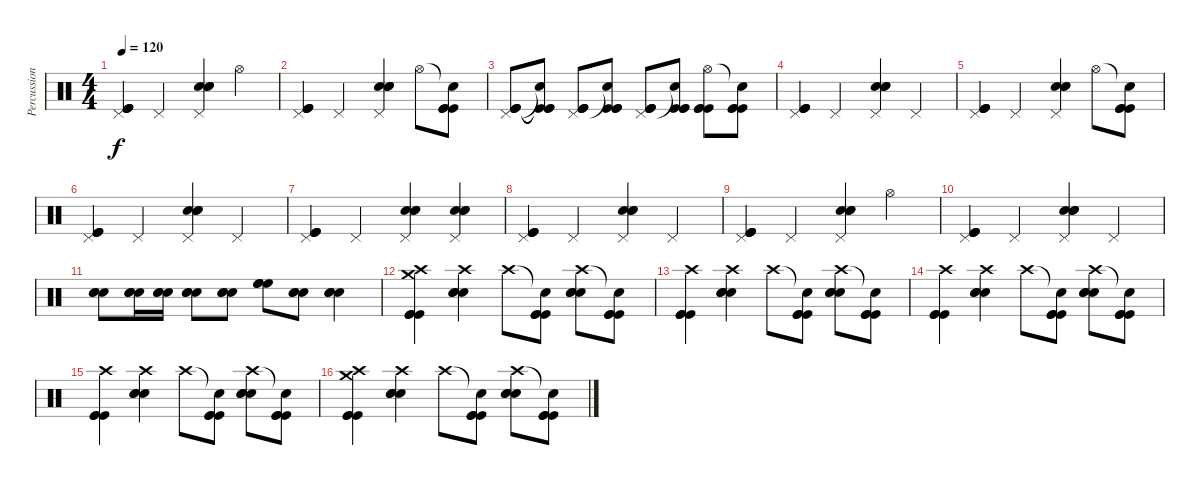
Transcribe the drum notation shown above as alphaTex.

\track ("Percussions" "Percussion") {instrument percussion}
\staff {score}
\articulation defaults
\ts (4 4)
\tempo 120
\clef neutral
\ks c
("Pedal Hi-Hat (hit)" "Kick (hit)" "Kick (hit)" "Kick (hit)").4{dy f} "Pedal Hi-Hat (hit)".4 ("Pedal Hi-Hat (hit)" "Snare (hit) 2" "Snare (hit) 2" "Snare (hit) 2").4 "Hi-Hat (open)".4 |
("Pedal Hi-Hat (hit)" "Kick (hit)" "Kick (hit)" "Kick (hit)").4 "Pedal Hi-Hat (hit)".4 ("Pedal Hi-Hat (hit)" "Snare (hit) 2" "Snare (hit) 2" "Snare (hit) 2").4 "Hi-Hat (open)".8 ("Snare (hit)"{t} "Kick (hit)" "Kick (hit)" "Kick (hit)").8 |
("Pedal Hi-Hat (hit)" "Kick (hit)" "Kick (hit)" "Kick (hit)").8 ("Snare (hit)"{t} "Kick (hit)"{t} "Kick (hit)"{t} "Kick (hit)"{t}).8 ("Pedal Hi-Hat (hit)" "Kick (hit)" "Kick (hit)" "Kick (hit)").8 ("Snare (hit)"{t} "Kick (hit)" "Kick (hit)" "Kick (hit)").8 ("Pedal Hi-Hat (hit)" "Kick (hit)" "Kick (hit)" "Kick (hit)").8 ("Snare (hit)"{t} "Kick (hit)" "Kick (hit)" "Kick (hit)").8 ("Hi-Hat (open)" "Kick (hit)" "Kick (hit)" "Kick (hit)").8 ("Snare (hit)"{t} "Kick (hit)" "Kick (hit)" "Kick (hit)").8 |
("Pedal Hi-Hat (hit)" "Kick (hit)" "Kick (hit)" "Kick (hit)").4 "Pedal Hi-Hat (hit)".4 ("Pedal Hi-Hat (hit)" "Snare (hit) 2" "Snare (hit) 2" "Snare (hit) 2").4 "Pedal Hi-Hat (hit)".4 |
("Pedal Hi-Hat (hit)" "Kick (hit)" "Kick (hit)" "Kick (hit)").4 "Pedal Hi-Hat (hit)".4 ("Pedal Hi-Hat (hit)" "Snare (hit) 2" "Snare (hit) 2" "Snare (hit) 2").4 "Hi-Hat (open)".8 ("Snare (hit)"{t} "Kick (hit)" "Kick (hit)" "Kick (hit)").8 |
("Pedal Hi-Hat (hit)" "Kick (hit)" "Kick (hit)" "Kick (hit)").4 "Pedal Hi-Hat (hit)".4 ("Pedal Hi-Hat (hit)" "Snare (hit) 2" "Snare (hit) 2" "Snare (hit) 2").4 "Pedal Hi-Hat (hit)".4 |
("Pedal Hi-Hat (hit)" "Kick (hit)" "Kick (hit)" "Kick (hit)").4 "Pedal Hi-Hat (hit)".4 ("Pedal Hi-Hat (hit)" "Snare (hit) 2" "Snare (hit) 2" "Snare (hit) 2").4 ("Pedal Hi-Hat (hit)" "Snare (hit) 2" "Snare (hit) 2" "Snare (hit) 2").4 |
("Pedal Hi-Hat (hit)" "Kick (hit)" "Kick (hit)" "Kick (hit)").4 "Pedal Hi-Hat (hit)".4 ("Pedal Hi-Hat (hit)" "Snare (hit) 2" "Snare (hit) 2" "Snare (hit) 2").4 "Pedal Hi-Hat (hit)".4 |
("Pedal Hi-Hat (hit)" "Kick (hit)" "Kick (hit)" "Kick (hit)").4 "Pedal Hi-Hat (hit)".4 ("Pedal Hi-Hat (hit)" "Snare (hit) 2" "Snare (hit) 2" "Snare (hit) 2").4 "Hi-Hat (open)".4 |
("Pedal Hi-Hat (hit)" "Kick (hit)" "Kick (hit)" "Kick (hit)").4 "Pedal Hi-Hat (hit)".4 ("Pedal Hi-Hat (hit)" "Snare (hit) 2" "Snare (hit) 2" "Snare (hit) 2").4 "Pedal Hi-Hat (hit)".4 |
("Snare (hit) 2" "Snare (hit) 2" "Snare (hit) 2").8 ("Snare (hit) 2" "Snare (hit) 2" "Snare (hit) 2").16 ("Snare (hit) 2" "Snare (hit) 2" "Snare (hit) 2").16 ("Snare (hit) 2" "Snare (hit) 2" "Snare (hit) 2").8 ("Snare (hit) 2" "Snare (hit) 2" "Snare (hit) 2").8 ("High Floor Tom (hit)" "High Floor Tom (hit)" "High Floor Tom (hit)").8 ("Snare (hit) 2" "Snare (hit) 2" "Snare (hit) 2").8 ("Snare (hit) 2" "Snare (hit) 2" "Snare (hit) 2").4 |
("Crash high (hit)" "Crash medium (hit)" "Kick (hit)" "Kick (hit)" "Kick (hit)").4 ("Crash high (hit)" "Snare (hit) 2" "Snare (hit) 2" "Snare (hit) 2").4 "Crash high (hit)".8 ("Snare (hit)"{t} "Kick (hit)" "Kick (hit)" "Kick (hit)").8 ("Crash high (hit)" "Snare (hit) 2" "Snare (hit) 2" "Snare (hit) 2").8 ("Snare (hit)"{t} "Kick (hit)" "Kick (hit)" "Kick (hit)").8 |
("Crash high (hit)" "Kick (hit)" "Kick (hit)" "Kick (hit)").4 ("Crash high (hit)" "Snare (hit) 2" "Snare (hit) 2" "Snare (hit) 2").4 "Crash high (hit)".8 ("Snare (hit)"{t} "Kick (hit)" "Kick (hit)" "Kick (hit)").8 ("Crash high (hit)" "Snare (hit) 2" "Snare (hit) 2" "Snare (hit) 2").8 ("Snare (hit)"{t} "Kick (hit)" "Kick (hit)" "Kick (hit)").8 |
("Crash high (hit)" "Kick (hit)" "Kick (hit)" "Kick (hit)").4 ("Crash high (hit)" "Snare (hit) 2" "Snare (hit) 2" "Snare (hit) 2").4 "Crash high (hit)".8 ("Snare (hit)"{t} "Kick (hit)" "Kick (hit)" "Kick (hit)").8 ("Crash high (hit)" "Snare (hit) 2" "Snare (hit) 2" "Snare (hit) 2").8 ("Snare (hit)"{t} "Kick (hit)" "Kick (hit)" "Kick (hit)").8 |
("Crash high (hit)" "Kick (hit)" "Kick (hit)" "Kick (hit)").4 ("Crash high (hit)" "Snare (hit) 2" "Snare (hit) 2" "Snare (hit) 2").4 "Crash high (hit)".8 ("Snare (hit)"{t} "Kick (hit)" "Kick (hit)" "Kick (hit)").8 ("Crash high (hit)" "Snare (hit) 2" "Snare (hit) 2" "Snare (hit) 2").8 ("Snare (hit)"{t} "Kick (hit)" "Kick (hit)" "Kick (hit)").8 |
("Crash high (hit)" "Crash medium (hit)" "Kick (hit)" "Kick (hit)" "Kick (hit)").4 ("Crash high (hit)" "Snare (hit) 2" "Snare (hit) 2" "Snare (hit) 2").4 "Crash high (hit)".8 ("Snare (hit)"{t} "Kick (hit)" "Kick (hit)" "Kick (hit)").8 ("Crash high (hit)" "Snare (hit) 2" "Snare (hit) 2" "Snare (hit) 2").8 ("Snare (hit)"{t} "Kick (hit)" "Kick (hit)" "Kick (hit)").8
